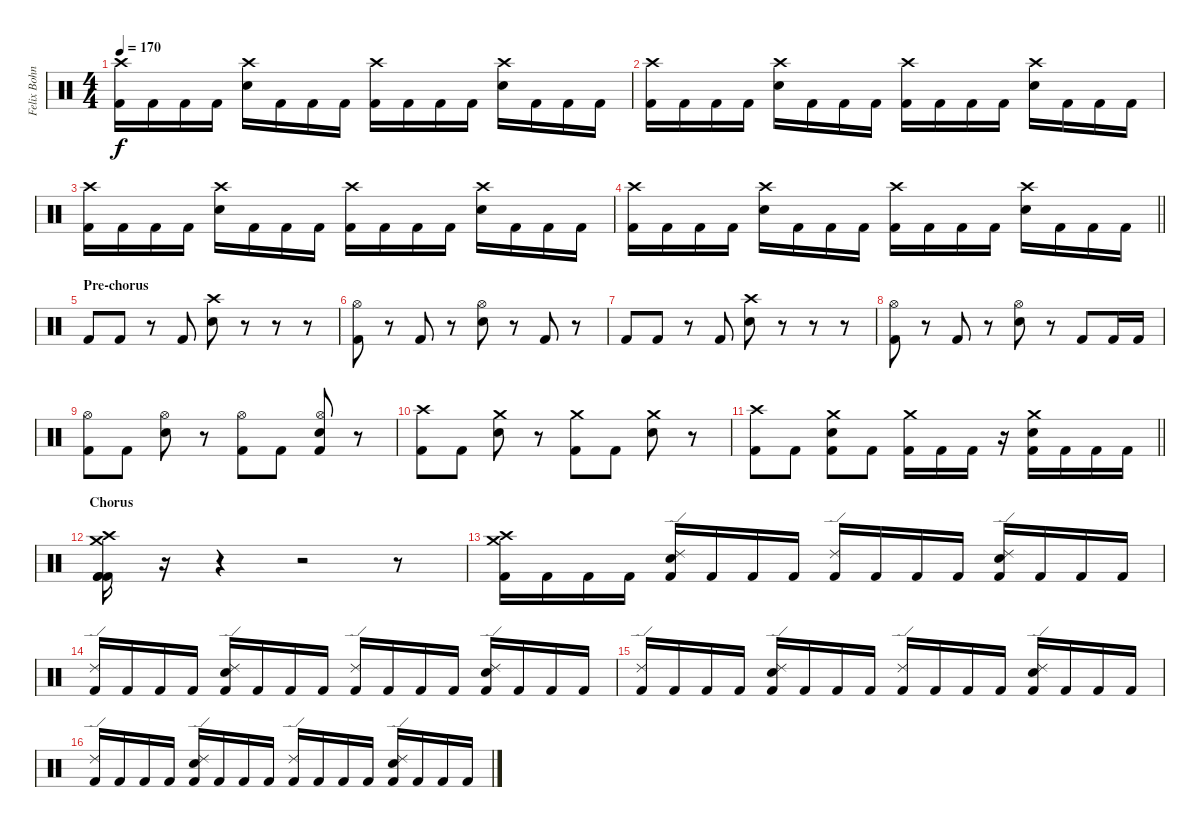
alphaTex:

\track ("Felix Bohnke - Drums" "Felix Bohn") {instrument percussion}
\staff {score}
\articulation defaults
\ts (4 4)
\tempo 170
\clef neutral
\ks c
("Crash high (hit)" "Kick (hit) 2").16{dy f} "Kick (hit) 2".16 "Kick (hit) 2".16 "Kick (hit) 2".16 ("Crash high (hit)" "Electric Snare (hit)").16 "Kick (hit) 2".16 "Kick (hit) 2".16 "Kick (hit) 2".16 ("Crash high (hit)" "Kick (hit) 2").16 "Kick (hit) 2".16 "Kick (hit) 2".16 "Kick (hit) 2".16 ("Crash high (hit)" "Electric Snare (hit)").16 "Kick (hit) 2".16 "Kick (hit) 2".16 "Kick (hit) 2".16 |
("Crash high (hit)" "Kick (hit) 2").16 "Kick (hit) 2".16 "Kick (hit) 2".16 "Kick (hit) 2".16 ("Crash high (hit)" "Electric Snare (hit)").16 "Kick (hit) 2".16 "Kick (hit) 2".16 "Kick (hit) 2".16 ("Crash high (hit)" "Kick (hit) 2").16 "Kick (hit) 2".16 "Kick (hit) 2".16 "Kick (hit) 2".16 ("Crash high (hit)" "Electric Snare (hit)").16 "Kick (hit) 2".16 "Kick (hit) 2".16 "Kick (hit) 2".16 |
("Crash high (hit)" "Kick (hit) 2").16 "Kick (hit) 2".16 "Kick (hit) 2".16 "Kick (hit) 2".16 ("Crash high (hit)" "Electric Snare (hit)").16 "Kick (hit) 2".16 "Kick (hit) 2".16 "Kick (hit) 2".16 ("Crash high (hit)" "Kick (hit) 2").16 "Kick (hit) 2".16 "Kick (hit) 2".16 "Kick (hit) 2".16 ("Crash high (hit)" "Electric Snare (hit)").16 "Kick (hit) 2".16 "Kick (hit) 2".16 "Kick (hit) 2".16 |
\barLineRight lightlight
("Crash high (hit)" "Kick (hit) 2").16 "Kick (hit) 2".16 "Kick (hit) 2".16 "Kick (hit) 2".16 ("Crash high (hit)" "Electric Snare (hit)").16 "Kick (hit) 2".16 "Kick (hit) 2".16 "Kick (hit) 2".16 ("Crash high (hit)" "Kick (hit) 2").16 "Kick (hit) 2".16 "Kick (hit) 2".16 "Kick (hit) 2".16 ("Crash high (hit)" "Electric Snare (hit)").16 "Kick (hit) 2".16 "Kick (hit) 2".16 "Kick (hit) 2".16 |
\section ("" "Pre-chorus")
"Kick (hit) 2".8 "Kick (hit) 2".8 r.8 "Kick (hit) 2".8 ("Crash high (hit)" "Electric Snare (hit)").8 r.8 r.8 r.8 |
("Hi-Hat (open)" "Kick (hit) 2").8 r.8 "Kick (hit) 2".8 r.8 ("Hi-Hat (open)" "Electric Snare (hit)").8 r.8 "Kick (hit) 2".8 r.8 |
"Kick (hit) 2".8 "Kick (hit) 2".8 r.8 "Kick (hit) 2".8 ("Crash high (hit)" "Electric Snare (hit)").8 r.8 r.8 r.8 |
("Hi-Hat (open)" "Kick (hit) 2").8 r.8 "Kick (hit) 2".8 r.8 ("Hi-Hat (open)" "Electric Snare (hit)").8 r.8 "Kick (hit) 2".8 "Kick (hit) 2".16 "Kick (hit) 2".16 |
("Hi-Hat (open)" "Kick (hit) 2").8 "Kick (hit) 2".8 ("Hi-Hat (open)" "Snare (hit) 2").8 r.8 ("Hi-Hat (open)" "Kick (hit) 2").8 "Kick (hit) 2".8 ("Hi-Hat (open)" "Snare (hit) 2" "Kick (hit) 2").8 r.8 |
("Crash high (hit)" "Kick (hit) 2").8 "Kick (hit) 2".8 ("Crash medium (hit)" "Snare (hit) 2").8 r.8 ("Crash medium (hit)" "Kick (hit) 2").8 "Kick (hit) 2".8 ("Crash medium (hit)" "Snare (hit) 2").8 r.8 |
\barLineRight lightlight
("Crash high (hit)" "Kick (hit) 2").8 "Kick (hit) 2".8 ("Crash medium (hit)" "Snare (hit) 2" "Kick (hit) 2").8 "Kick (hit) 2".8 ("Crash medium (hit)" "Kick (hit) 2").16 "Kick (hit) 2".16 "Kick (hit) 2".16 r.16 ("Crash medium (hit)" "Snare (hit) 2" "Kick (hit) 2").16 "Kick (hit) 2".16 "Kick (hit) 2".16 "Kick (hit) 2".16 |
\section ("" "Chorus")
("Crash high (hit)" "Crash medium (hit)" "Kick (hit) 2" "Kick (hit) 2" "Kick (hit) 2").16 r.16 r.4 r.2 r.8 |
("Crash high (hit)" "Crash medium (hit)" "Kick (hit) 2").16 "Kick (hit) 2".16 "Kick (hit) 2".16 "Kick (hit) 2".16 ("Ride (edge) 2" "Snare (hit) 2" "Kick (hit) 2").16 "Kick (hit) 2".16 "Kick (hit) 2".16 "Kick (hit) 2".16 ("Ride (edge) 2" "Kick (hit) 2").16 "Kick (hit) 2".16 "Kick (hit) 2".16 "Kick (hit) 2".16 ("Ride (edge) 2" "Snare (hit) 2" "Kick (hit) 2").16 "Kick (hit) 2".16 "Kick (hit) 2".16 "Kick (hit) 2".16 |
("Ride (edge) 2" "Kick (hit) 2").16 "Kick (hit) 2".16 "Kick (hit) 2".16 "Kick (hit) 2".16 ("Ride (edge) 2" "Snare (hit) 2" "Kick (hit) 2").16 "Kick (hit) 2".16 "Kick (hit) 2".16 "Kick (hit) 2".16 ("Ride (edge) 2" "Kick (hit) 2").16 "Kick (hit) 2".16 "Kick (hit) 2".16 "Kick (hit) 2".16 ("Ride (edge) 2" "Snare (hit) 2" "Kick (hit) 2").16 "Kick (hit) 2".16 "Kick (hit) 2".16 "Kick (hit) 2".16 |
("Ride (edge) 2" "Kick (hit) 2").16 "Kick (hit) 2".16 "Kick (hit) 2".16 "Kick (hit) 2".16 ("Ride (edge) 2" "Snare (hit) 2" "Kick (hit) 2").16 "Kick (hit) 2".16 "Kick (hit) 2".16 "Kick (hit) 2".16 ("Ride (edge) 2" "Kick (hit) 2").16 "Kick (hit) 2".16 "Kick (hit) 2".16 "Kick (hit) 2".16 ("Ride (edge) 2" "Snare (hit) 2" "Kick (hit) 2").16 "Kick (hit) 2".16 "Kick (hit) 2".16 "Kick (hit) 2".16 |
("Ride (edge) 2" "Kick (hit) 2").16 "Kick (hit) 2".16 "Kick (hit) 2".16 "Kick (hit) 2".16 ("Ride (edge) 2" "Snare (hit) 2" "Kick (hit) 2").16 "Kick (hit) 2".16 "Kick (hit) 2".16 "Kick (hit) 2".16 ("Ride (edge) 2" "Kick (hit) 2").16 "Kick (hit) 2".16 "Kick (hit) 2".16 "Kick (hit) 2".16 ("Ride (edge) 2" "Snare (hit) 2" "Kick (hit) 2").16 "Kick (hit) 2".16 "Kick (hit) 2".16 "Kick (hit) 2".16
